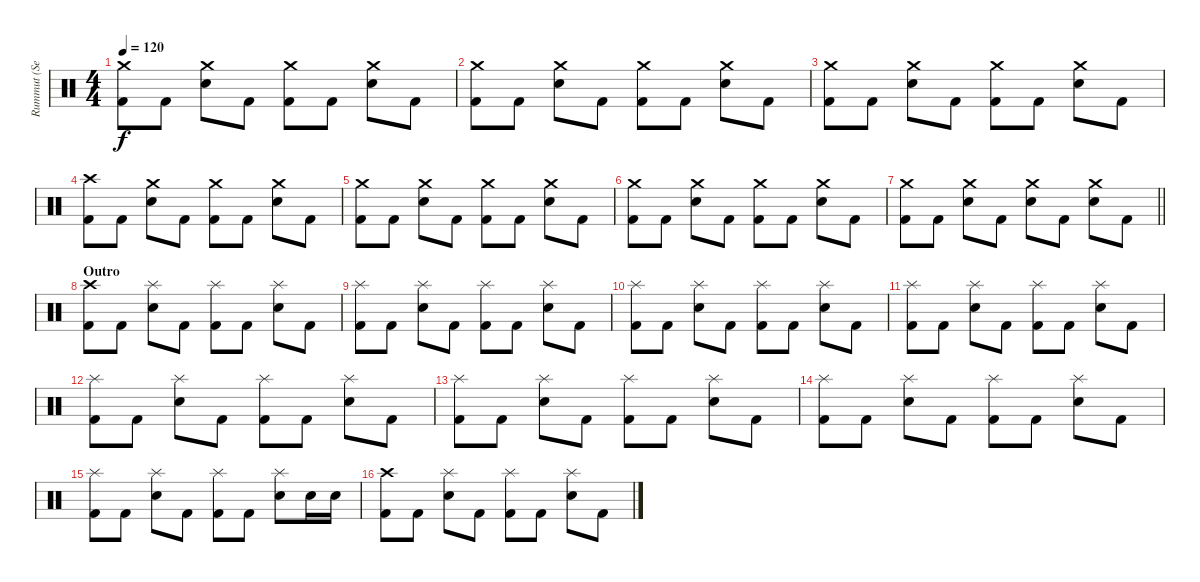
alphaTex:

\track ("Rummut (Seppo Pohjolainen)" "Rummut (Se") {instrument percussion}
\staff {score}
\articulation defaults
\ts (4 4)
\tempo 120
\clef neutral
\ks c
("Crash medium (hit)" "Kick (hit) 2").8{dy f} "Kick (hit) 2".8 ("Crash medium (hit)" "Electric Snare (hit)").8 "Kick (hit) 2".8 ("Crash medium (hit)" "Kick (hit) 2").8 "Kick (hit) 2".8 ("Crash medium (hit)" "Electric Snare (hit)").8 "Kick (hit) 2".8 |
("Crash medium (hit)" "Kick (hit) 2").8 "Kick (hit) 2".8 ("Crash medium (hit)" "Electric Snare (hit)").8 "Kick (hit) 2".8 ("Crash medium (hit)" "Kick (hit) 2").8 "Kick (hit) 2".8 ("Crash medium (hit)" "Electric Snare (hit)").8 "Kick (hit) 2".8 |
("Crash medium (hit)" "Kick (hit) 2").8 "Kick (hit) 2".8 ("Crash medium (hit)" "Electric Snare (hit)").8 "Kick (hit) 2".8 ("Crash medium (hit)" "Kick (hit) 2").8 "Kick (hit) 2".8 ("Crash medium (hit)" "Electric Snare (hit)").8 "Kick (hit) 2".8 |
("Crash high (hit)" "Kick (hit) 2").8 "Kick (hit) 2".8 ("Crash medium (hit)" "Electric Snare (hit)").8 "Kick (hit) 2".8 ("Crash medium (hit)" "Kick (hit) 2").8 "Kick (hit) 2".8 ("Crash medium (hit)" "Electric Snare (hit)").8 "Kick (hit) 2".8 |
("Crash medium (hit)" "Kick (hit) 2").8 "Kick (hit) 2".8 ("Crash medium (hit)" "Electric Snare (hit)").8 "Kick (hit) 2".8 ("Crash medium (hit)" "Kick (hit) 2").8 "Kick (hit) 2".8 ("Crash medium (hit)" "Electric Snare (hit)").8 "Kick (hit) 2".8 |
("Crash medium (hit)" "Kick (hit) 2").8 "Kick (hit) 2".8 ("Crash medium (hit)" "Electric Snare (hit)").8 "Kick (hit) 2".8 ("Crash medium (hit)" "Kick (hit) 2").8 "Kick (hit) 2".8 ("Crash medium (hit)" "Electric Snare (hit)").8 "Kick (hit) 2".8 |
\barLineRight lightlight
("Crash medium (hit)" "Kick (hit) 2").8 "Kick (hit) 2".8 ("Crash medium (hit)" "Electric Snare (hit)").8 "Kick (hit) 2".8 ("Crash medium (hit)" "Electric Snare (hit)").8 "Kick (hit) 2".8 ("Crash medium (hit)" "Electric Snare (hit)").8 "Kick (hit) 2".8 |
\section ("" "Outro")
("Crash high (hit)" "Kick (hit) 2").8 "Kick (hit) 2".8 ("Splash (hit)" "Electric Snare (hit)").8 "Kick (hit) 2".8 ("Splash (hit)" "Kick (hit) 2").8 "Kick (hit) 2".8 ("Splash (hit)" "Electric Snare (hit)").8 "Kick (hit) 2".8 |
("Splash (hit)" "Kick (hit) 2").8 "Kick (hit) 2".8 ("Splash (hit)" "Electric Snare (hit)").8 "Kick (hit) 2".8 ("Splash (hit)" "Kick (hit) 2").8 "Kick (hit) 2".8 ("Splash (hit)" "Electric Snare (hit)").8 "Kick (hit) 2".8 |
("Splash (hit)" "Kick (hit) 2").8 "Kick (hit) 2".8 ("Splash (hit)" "Electric Snare (hit)").8 "Kick (hit) 2".8 ("Splash (hit)" "Kick (hit) 2").8 "Kick (hit) 2".8 ("Splash (hit)" "Electric Snare (hit)").8 "Kick (hit) 2".8 |
("Splash (hit)" "Kick (hit) 2").8 "Kick (hit) 2".8 ("Splash (hit)" "Electric Snare (hit)").8 "Kick (hit) 2".8 ("Splash (hit)" "Kick (hit) 2").8 "Kick (hit) 2".8 ("Splash (hit)" "Electric Snare (hit)").8 "Kick (hit) 2".8 |
("Splash (hit)" "Kick (hit) 2").8 "Kick (hit) 2".8 ("Splash (hit)" "Electric Snare (hit)").8 "Kick (hit) 2".8 ("Splash (hit)" "Kick (hit) 2").8 "Kick (hit) 2".8 ("Splash (hit)" "Electric Snare (hit)").8 "Kick (hit) 2".8 |
("Splash (hit)" "Kick (hit) 2").8 "Kick (hit) 2".8 ("Splash (hit)" "Electric Snare (hit)").8 "Kick (hit) 2".8 ("Splash (hit)" "Kick (hit) 2").8 "Kick (hit) 2".8 ("Splash (hit)" "Electric Snare (hit)").8 "Kick (hit) 2".8 |
("Splash (hit)" "Kick (hit) 2").8 "Kick (hit) 2".8 ("Splash (hit)" "Electric Snare (hit)").8 "Kick (hit) 2".8 ("Splash (hit)" "Kick (hit) 2").8 "Kick (hit) 2".8 ("Splash (hit)" "Electric Snare (hit)").8 "Kick (hit) 2".8 |
("Splash (hit)" "Kick (hit) 2").8 "Kick (hit) 2".8 ("Splash (hit)" "Electric Snare (hit)").8 "Kick (hit) 2".8 ("Splash (hit)" "Kick (hit) 2").8 "Kick (hit) 2".8 ("Splash (hit)" "Electric Snare (hit)").8 "Electric Snare (hit)".16 "Electric Snare (hit)".16 |
("Crash high (hit)" "Kick (hit) 2").8 "Kick (hit) 2".8 ("Splash (hit)" "Electric Snare (hit)").8 "Kick (hit) 2".8 ("Splash (hit)" "Kick (hit) 2").8 "Kick (hit) 2".8 ("Splash (hit)" "Electric Snare (hit)").8 "Kick (hit) 2".8
